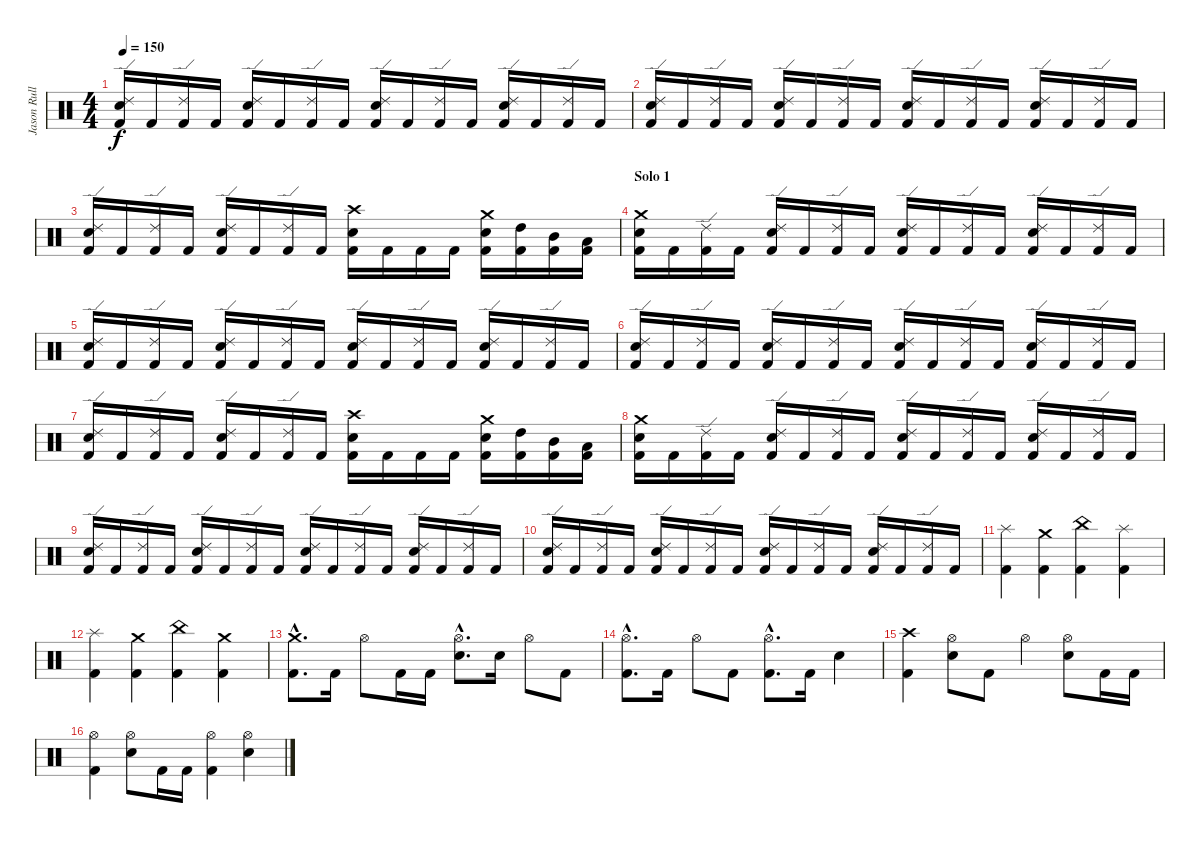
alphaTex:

\track ("Jason Rullo" "Jason Rull") {instrument percussion}
\staff {score}
\articulation defaults
\ts (4 4)
\tempo 150
\clef neutral
\ks c
("Ride (edge) 2" "Electric Snare (hit)" "Kick (hit) 2").16{dy f} "Kick (hit) 2".16 ("Ride (edge) 2" "Kick (hit) 2").16 "Kick (hit) 2".16 ("Ride (edge) 2" "Electric Snare (hit)" "Kick (hit) 2").16 "Kick (hit) 2".16 ("Ride (edge) 2" "Kick (hit) 2").16 "Kick (hit) 2".16 ("Ride (edge) 2" "Electric Snare (hit)" "Kick (hit) 2").16 "Kick (hit) 2".16 ("Ride (edge) 2" "Kick (hit) 2").16 "Kick (hit) 2".16 ("Ride (edge) 2" "Electric Snare (hit)" "Kick (hit) 2").16 "Kick (hit) 2".16 ("Ride (edge) 2" "Kick (hit) 2").16 "Kick (hit) 2".16 |
("Ride (edge) 2" "Electric Snare (hit)" "Kick (hit) 2").16 "Kick (hit) 2".16 ("Ride (edge) 2" "Kick (hit) 2").16 "Kick (hit) 2".16 ("Ride (edge) 2" "Electric Snare (hit)" "Kick (hit) 2").16 "Kick (hit) 2".16 ("Ride (edge) 2" "Kick (hit) 2").16 "Kick (hit) 2".16 ("Ride (edge) 2" "Electric Snare (hit)" "Kick (hit) 2").16 "Kick (hit) 2".16 ("Ride (edge) 2" "Kick (hit) 2").16 "Kick (hit) 2".16 ("Ride (edge) 2" "Electric Snare (hit)" "Kick (hit) 2").16 "Kick (hit) 2".16 ("Ride (edge) 2" "Kick (hit) 2").16 "Kick (hit) 2".16 |
("Ride (edge) 2" "Electric Snare (hit)" "Kick (hit) 2").16 "Kick (hit) 2".16 ("Ride (edge) 2" "Kick (hit) 2").16 "Kick (hit) 2".16 ("Ride (edge) 2" "Electric Snare (hit)" "Kick (hit) 2").16 "Kick (hit) 2".16 ("Ride (edge) 2" "Kick (hit) 2").16 "Kick (hit) 2".16 ("Crash high (hit)" "Electric Snare (hit)" "Kick (hit) 2").16 "Kick (hit) 2".16 "Kick (hit) 2".16 "Kick (hit) 2".16 ("Crash medium (hit)" "Electric Snare (hit)" "Kick (hit) 2").16 ("High Tom (hit)" "Kick (hit) 2").16 ("Mid Tom (hit)" "Kick (hit) 2").16 ("Low Tom (hit)" "Kick (hit) 2").16 |
\section ("" "Solo 1")
("Crash medium (hit)" "Electric Snare (hit)" "Kick (hit) 2").16 "Kick (hit) 2".16 ("Ride (edge) 2" "Kick (hit) 2").16 "Kick (hit) 2".16 ("Ride (edge) 2" "Electric Snare (hit)" "Kick (hit) 2").16 "Kick (hit) 2".16 ("Ride (edge) 2" "Kick (hit) 2").16 "Kick (hit) 2".16 ("Ride (edge) 2" "Electric Snare (hit)" "Kick (hit) 2").16 "Kick (hit) 2".16 ("Ride (edge) 2" "Kick (hit) 2").16 "Kick (hit) 2".16 ("Ride (edge) 2" "Electric Snare (hit)" "Kick (hit) 2").16 "Kick (hit) 2".16 ("Ride (edge) 2" "Kick (hit) 2").16 "Kick (hit) 2".16 |
("Ride (edge) 2" "Electric Snare (hit)" "Kick (hit) 2").16 "Kick (hit) 2".16 ("Ride (edge) 2" "Kick (hit) 2").16 "Kick (hit) 2".16 ("Ride (edge) 2" "Electric Snare (hit)" "Kick (hit) 2").16 "Kick (hit) 2".16 ("Ride (edge) 2" "Kick (hit) 2").16 "Kick (hit) 2".16 ("Ride (edge) 2" "Electric Snare (hit)" "Kick (hit) 2").16 "Kick (hit) 2".16 ("Ride (edge) 2" "Kick (hit) 2").16 "Kick (hit) 2".16 ("Ride (edge) 2" "Electric Snare (hit)" "Kick (hit) 2").16 "Kick (hit) 2".16 ("Ride (edge) 2" "Kick (hit) 2").16 "Kick (hit) 2".16 |
("Ride (edge) 2" "Electric Snare (hit)" "Kick (hit) 2").16 "Kick (hit) 2".16 ("Ride (edge) 2" "Kick (hit) 2").16 "Kick (hit) 2".16 ("Ride (edge) 2" "Electric Snare (hit)" "Kick (hit) 2").16 "Kick (hit) 2".16 ("Ride (edge) 2" "Kick (hit) 2").16 "Kick (hit) 2".16 ("Ride (edge) 2" "Electric Snare (hit)" "Kick (hit) 2").16 "Kick (hit) 2".16 ("Ride (edge) 2" "Kick (hit) 2").16 "Kick (hit) 2".16 ("Ride (edge) 2" "Electric Snare (hit)" "Kick (hit) 2").16 "Kick (hit) 2".16 ("Ride (edge) 2" "Kick (hit) 2").16 "Kick (hit) 2".16 |
("Ride (edge) 2" "Electric Snare (hit)" "Kick (hit) 2").16 "Kick (hit) 2".16 ("Ride (edge) 2" "Kick (hit) 2").16 "Kick (hit) 2".16 ("Ride (edge) 2" "Electric Snare (hit)" "Kick (hit) 2").16 "Kick (hit) 2".16 ("Ride (edge) 2" "Kick (hit) 2").16 "Kick (hit) 2".16 ("Crash high (hit)" "Electric Snare (hit)" "Kick (hit) 2").16 "Kick (hit) 2".16 "Kick (hit) 2".16 "Kick (hit) 2".16 ("Crash medium (hit)" "Electric Snare (hit)" "Kick (hit) 2").16 ("High Tom (hit)" "Kick (hit) 2").16 ("Mid Tom (hit)" "Kick (hit) 2").16 ("Low Tom (hit)" "Kick (hit) 2").16 |
("Crash medium (hit)" "Electric Snare (hit)" "Kick (hit) 2").16 "Kick (hit) 2".16 ("Ride (edge) 2" "Kick (hit) 2").16 "Kick (hit) 2".16 ("Ride (edge) 2" "Electric Snare (hit)" "Kick (hit) 2").16 "Kick (hit) 2".16 ("Ride (edge) 2" "Kick (hit) 2").16 "Kick (hit) 2".16 ("Ride (edge) 2" "Electric Snare (hit)" "Kick (hit) 2").16 "Kick (hit) 2".16 ("Ride (edge) 2" "Kick (hit) 2").16 "Kick (hit) 2".16 ("Ride (edge) 2" "Electric Snare (hit)" "Kick (hit) 2").16 "Kick (hit) 2".16 ("Ride (edge) 2" "Kick (hit) 2").16 "Kick (hit) 2".16 |
("Ride (edge) 2" "Electric Snare (hit)" "Kick (hit) 2").16 "Kick (hit) 2".16 ("Ride (edge) 2" "Kick (hit) 2").16 "Kick (hit) 2".16 ("Ride (edge) 2" "Electric Snare (hit)" "Kick (hit) 2").16 "Kick (hit) 2".16 ("Ride (edge) 2" "Kick (hit) 2").16 "Kick (hit) 2".16 ("Ride (edge) 2" "Electric Snare (hit)" "Kick (hit) 2").16 "Kick (hit) 2".16 ("Ride (edge) 2" "Kick (hit) 2").16 "Kick (hit) 2".16 ("Ride (edge) 2" "Electric Snare (hit)" "Kick (hit) 2").16 "Kick (hit) 2".16 ("Ride (edge) 2" "Kick (hit) 2").16 "Kick (hit) 2".16 |
("Ride (edge) 2" "Electric Snare (hit)" "Kick (hit) 2").16 "Kick (hit) 2".16 ("Ride (edge) 2" "Kick (hit) 2").16 "Kick (hit) 2".16 ("Ride (edge) 2" "Electric Snare (hit)" "Kick (hit) 2").16 "Kick (hit) 2".16 ("Ride (edge) 2" "Kick (hit) 2").16 "Kick (hit) 2".16 ("Ride (edge) 2" "Electric Snare (hit)" "Kick (hit) 2").16 "Kick (hit) 2".16 ("Ride (edge) 2" "Kick (hit) 2").16 "Kick (hit) 2".16 ("Ride (edge) 2" "Electric Snare (hit)" "Kick (hit) 2").16 "Kick (hit) 2".16 ("Ride (edge) 2" "Kick (hit) 2").16 "Kick (hit) 2".16 |
("Splash (hit)" "Kick (hit) 2").4 ("Crash medium (hit)" "Kick (hit) 2").4 ("China (hit)" "Kick (hit) 2").4 ("Splash (hit)" "Kick (hit) 2").4 |
("Splash (hit)" "Kick (hit) 2").4 ("Crash medium (hit)" "Kick (hit) 2").4 ("China (hit)" "Kick (hit) 2").4 ("Crash medium (hit)" "Kick (hit) 2").4 |
("Crash medium (hit)" "Kick (hit) 2"{hac}).8{d} "Kick (hit) 2".16 "Hi-Hat (open)".8 "Kick (hit) 2".16 "Kick (hit) 2".16 ("Hi-Hat (open)"{hac} "Electric Snare (hit)"{hac}).8{d} "Electric Snare (hit)".16 "Hi-Hat (open)".8 "Kick (hit) 2".8 |
("Hi-Hat (open)" "Kick (hit) 2"{hac}).8{d} "Kick (hit) 2".16 "Hi-Hat (open)".8 "Kick (hit) 2".8 ("Hi-Hat (open)" "Kick (hit) 2"{hac}).8{d} "Kick (hit) 2".16 "Electric Snare (hit)".4 |
("Crash high (hit)" "Kick (hit) 2").4 ("Hi-Hat (open)" "Electric Snare (hit)").8 "Kick (hit) 2".8 "Hi-Hat (open)".4 ("Hi-Hat (open)" "Electric Snare (hit)").8 "Kick (hit) 2".16 "Kick (hit) 2".16 |
("Hi-Hat (open)" "Kick (hit) 2").4 ("Hi-Hat (open)" "Electric Snare (hit)").8 "Kick (hit) 2".16 "Kick (hit) 2".16 ("Hi-Hat (open)" "Kick (hit) 2").4 ("Hi-Hat (open)" "Electric Snare (hit)").4
